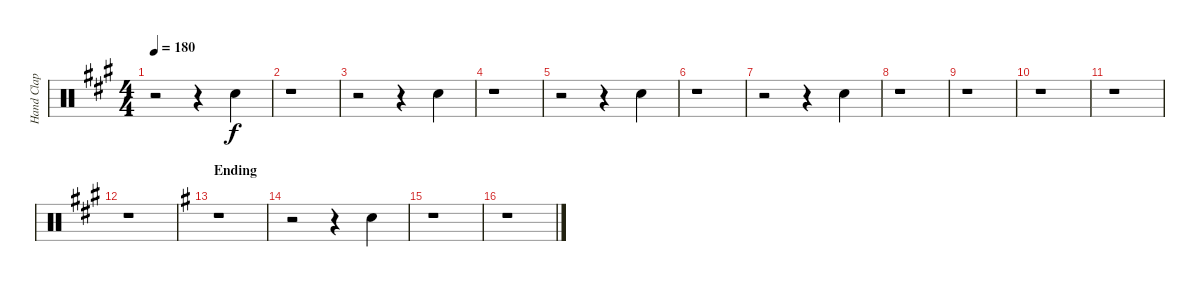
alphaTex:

\track ("Hand Clap" "Hand Clap") {instrument percussion}
\staff {score}
\articulation defaults
\ts (4 4)
\tempo 180
\clef neutral
\ks a
r.2{dy f} r.4 "Hand Clap (hit)".4 |
r.1 |
r.2 r.4 "Hand Clap (hit)".4 |
r.1 |
r.2 r.4 "Hand Clap (hit)".4 |
r.1 |
r.2 r.4 "Hand Clap (hit)".4 |
r.1 |
r.1 |
r.1 |
r.1 |
r.1 |
\section ("" "Ending")
\ks g
r.1 |
r.2 r.4 "Hand Clap (hit)".4 |
r.1 |
r.1
